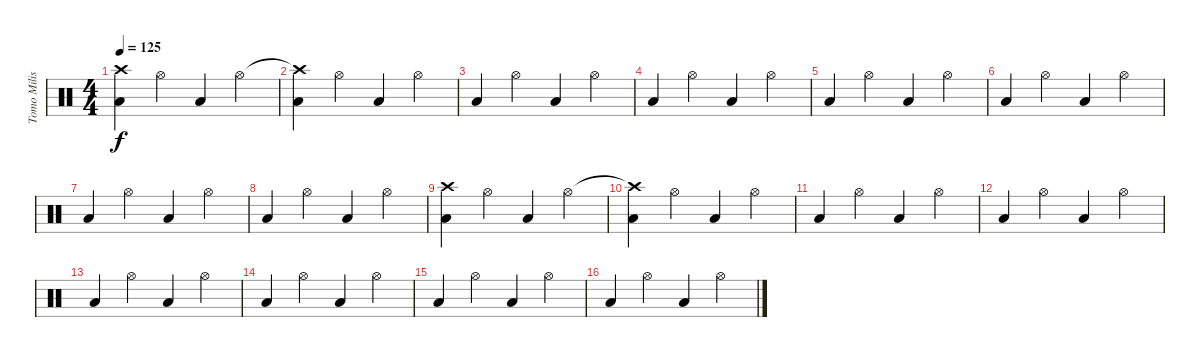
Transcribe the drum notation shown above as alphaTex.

\track ("Tomo Milisevic" "Tomo Milis") {instrument percussion}
\staff {score}
\articulation defaults
\ts (4 4)
\tempo 125
\clef neutral
\ks c
("Crash high (hit)" "Low Floor Tom (hit)").4{dy f} "Hi-Hat (open)".4 "Low Floor Tom (hit)".4 "Hi-Hat (open)".4 |
("Crash high (hit)"{t} "Low Floor Tom (hit)").4 "Hi-Hat (open)".4 "Low Floor Tom (hit)".4 "Hi-Hat (open)".4 |
"Low Floor Tom (hit)".4 "Hi-Hat (open)".4 "Low Floor Tom (hit)".4 "Hi-Hat (open)".4 |
"Low Floor Tom (hit)".4 "Hi-Hat (open)".4 "Low Floor Tom (hit)".4 "Hi-Hat (open)".4 |
"Low Floor Tom (hit)".4 "Hi-Hat (open)".4 "Low Floor Tom (hit)".4 "Hi-Hat (open)".4 |
"Low Floor Tom (hit)".4 "Hi-Hat (open)".4 "Low Floor Tom (hit)".4 "Hi-Hat (open)".4 |
"Low Floor Tom (hit)".4 "Hi-Hat (open)".4 "Low Floor Tom (hit)".4 "Hi-Hat (open)".4 |
"Low Floor Tom (hit)".4 "Hi-Hat (open)".4 "Low Floor Tom (hit)".4 "Hi-Hat (open)".4 |
("Crash high (hit)" "Low Floor Tom (hit)").4 "Hi-Hat (open)".4 "Low Floor Tom (hit)".4 "Hi-Hat (open)".4 |
("Crash high (hit)"{t} "Low Floor Tom (hit)").4 "Hi-Hat (open)".4 "Low Floor Tom (hit)".4 "Hi-Hat (open)".4 |
"Low Floor Tom (hit)".4 "Hi-Hat (open)".4 "Low Floor Tom (hit)".4 "Hi-Hat (open)".4 |
"Low Floor Tom (hit)".4 "Hi-Hat (open)".4 "Low Floor Tom (hit)".4 "Hi-Hat (open)".4 |
"Low Floor Tom (hit)".4 "Hi-Hat (open)".4 "Low Floor Tom (hit)".4 "Hi-Hat (open)".4 |
"Low Floor Tom (hit)".4 "Hi-Hat (open)".4 "Low Floor Tom (hit)".4 "Hi-Hat (open)".4 |
"Low Floor Tom (hit)".4 "Hi-Hat (open)".4 "Low Floor Tom (hit)".4 "Hi-Hat (open)".4 |
"Low Floor Tom (hit)".4 "Hi-Hat (open)".4 "Low Floor Tom (hit)".4 "Hi-Hat (open)".4
